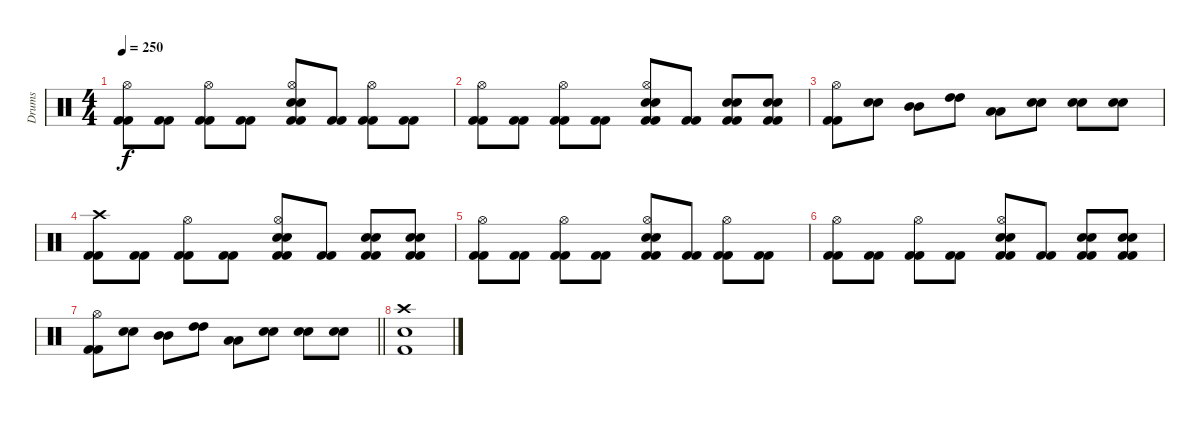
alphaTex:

\track ("Drums" "Drums") {instrument percussion}
\staff {score}
\articulation defaults
\ts (4 4)
\tempo 250
\clef neutral
\ks c
("Kick (hit) 2" "Kick (hit) 2" "Hi-Hat (open)").8{dy f} ("Kick (hit) 2" "Kick (hit) 2").8 ("Kick (hit) 2" "Kick (hit) 2" "Hi-Hat (open)").8 ("Kick (hit) 2" "Kick (hit) 2").8 ("Kick (hit) 2" "Kick (hit) 2" "Electric Snare (hit)" "Electric Snare (hit)" "Hi-Hat (open)").8 ("Kick (hit) 2" "Kick (hit) 2").8 ("Kick (hit) 2" "Kick (hit) 2" "Hi-Hat (open)").8 ("Kick (hit) 2" "Kick (hit) 2").8 |
("Kick (hit) 2" "Kick (hit) 2" "Hi-Hat (open)").8 ("Kick (hit) 2" "Kick (hit) 2").8 ("Kick (hit) 2" "Kick (hit) 2" "Hi-Hat (open)").8 ("Kick (hit) 2" "Kick (hit) 2").8 ("Kick (hit) 2" "Kick (hit) 2" "Electric Snare (hit)" "Electric Snare (hit)" "Hi-Hat (open)").8 ("Kick (hit) 2" "Kick (hit) 2").8 ("Kick (hit) 2" "Kick (hit) 2" "Electric Snare (hit)" "Electric Snare (hit)").8 ("Kick (hit) 2" "Kick (hit) 2" "Electric Snare (hit)" "Electric Snare (hit)").8 |
("Kick (hit) 2" "Kick (hit) 2" "Hi-Hat (open)").8 ("Electric Snare (hit)" "Electric Snare (hit)").8 ("Mid Tom (hit)" "Mid Tom (hit)").8 ("High Tom (hit)" "High Tom (hit)").8 ("Low Floor Tom (hit)" "Low Floor Tom (hit)").8 ("Electric Snare (hit)" "Electric Snare (hit)").8 ("Electric Snare (hit)" "Electric Snare (hit)").8 ("Electric Snare (hit)" "Electric Snare (hit)").8 |
("Kick (hit) 2" "Kick (hit) 2" "Crash high (hit)").8 ("Kick (hit) 2" "Kick (hit) 2").8 ("Kick (hit) 2" "Kick (hit) 2" "Hi-Hat (open)").8 ("Kick (hit) 2" "Kick (hit) 2").8 ("Kick (hit) 2" "Kick (hit) 2" "Electric Snare (hit)" "Electric Snare (hit)" "Hi-Hat (open)").8 ("Kick (hit) 2" "Kick (hit) 2").8 ("Kick (hit) 2" "Kick (hit) 2" "Electric Snare (hit)" "Electric Snare (hit)").8 ("Kick (hit) 2" "Kick (hit) 2" "Electric Snare (hit)" "Electric Snare (hit)").8 |
("Kick (hit) 2" "Kick (hit) 2" "Hi-Hat (open)").8 ("Kick (hit) 2" "Kick (hit) 2").8 ("Kick (hit) 2" "Kick (hit) 2" "Hi-Hat (open)").8 ("Kick (hit) 2" "Kick (hit) 2").8 ("Kick (hit) 2" "Kick (hit) 2" "Electric Snare (hit)" "Electric Snare (hit)" "Hi-Hat (open)").8 ("Kick (hit) 2" "Kick (hit) 2").8 ("Kick (hit) 2" "Kick (hit) 2" "Hi-Hat (open)").8 ("Kick (hit) 2" "Kick (hit) 2").8 |
("Kick (hit) 2" "Kick (hit) 2" "Hi-Hat (open)").8 ("Kick (hit) 2" "Kick (hit) 2").8 ("Kick (hit) 2" "Kick (hit) 2" "Hi-Hat (open)").8 ("Kick (hit) 2" "Kick (hit) 2").8 ("Kick (hit) 2" "Kick (hit) 2" "Electric Snare (hit)" "Electric Snare (hit)" "Hi-Hat (open)").8 ("Kick (hit) 2" "Kick (hit) 2").8 ("Kick (hit) 2" "Kick (hit) 2" "Electric Snare (hit)" "Electric Snare (hit)").8 ("Kick (hit) 2" "Kick (hit) 2" "Electric Snare (hit)" "Electric Snare (hit)").8 |
\barLineRight lightlight
("Kick (hit) 2" "Kick (hit) 2" "Hi-Hat (open)").8 ("Electric Snare (hit)" "Electric Snare (hit)").8 ("Mid Tom (hit)" "Mid Tom (hit)").8 ("High Tom (hit)" "High Tom (hit)").8 ("Low Floor Tom (hit)" "Low Floor Tom (hit)").8 ("Electric Snare (hit)" "Electric Snare (hit)").8 ("Electric Snare (hit)" "Electric Snare (hit)").8 ("Electric Snare (hit)" "Electric Snare (hit)").8 |
("Crash high (hit)" "Electric Snare (hit)" "Kick (hit) 2").1
